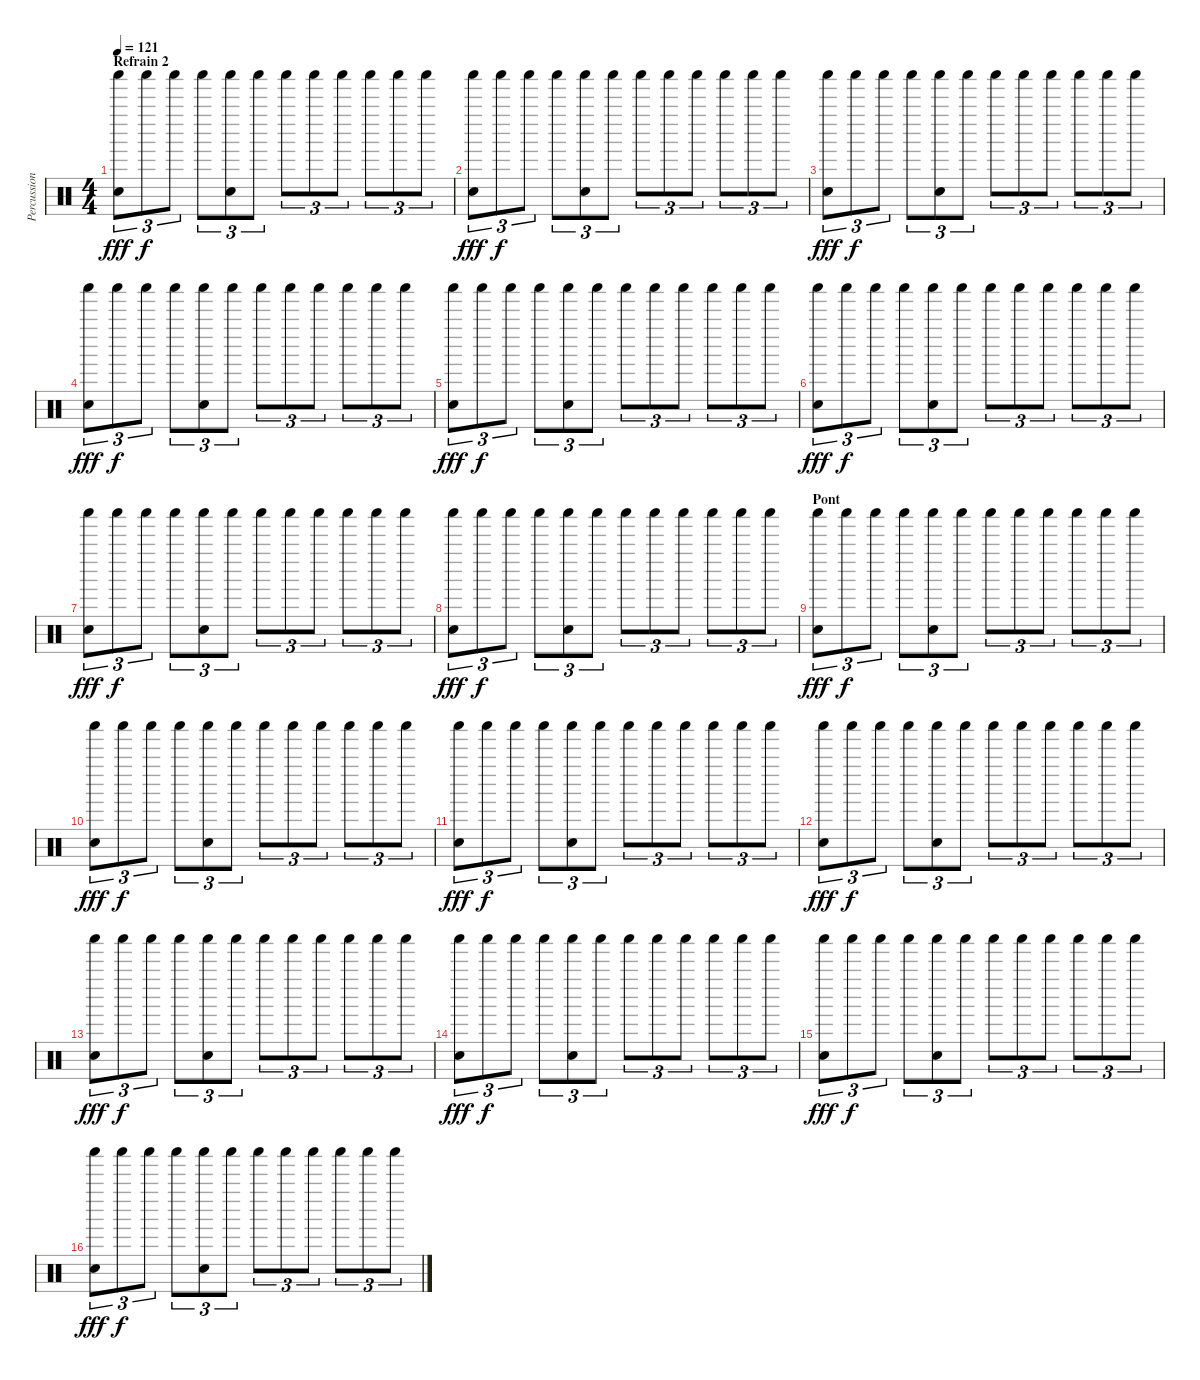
\track ("Percussions" "Percussion") {instrument percussion}
\staff {score}
\articulation defaults
\ts (4 4)
\section ("" "Refrain 2")
\tempo 121
\clef neutral
\ks c
("Shaker (hit)" "Electric Snare (hit)").8{tu (3 2) dy fff} "Shaker (hit)".8{tu (3 2) dy f} "Shaker (hit)".8{tu (3 2)} "Shaker (hit)".8{tu (3 2)} ("Shaker (hit)" "Electric Snare (hit)").8{tu (3 2)} "Shaker (hit)".8{tu (3 2)} "Shaker (hit)".8{tu (3 2)} "Shaker (hit)".8{tu (3 2)} "Shaker (hit)".8{tu (3 2)} "Shaker (hit)".8{tu (3 2)} "Shaker (hit)".8{tu (3 2)} "Shaker (hit)".8{tu (3 2)} |
("Shaker (hit)" "Electric Snare (hit)").8{tu (3 2) dy fff} "Shaker (hit)".8{tu (3 2) dy f} "Shaker (hit)".8{tu (3 2)} "Shaker (hit)".8{tu (3 2)} ("Shaker (hit)" "Electric Snare (hit)").8{tu (3 2)} "Shaker (hit)".8{tu (3 2)} "Shaker (hit)".8{tu (3 2)} "Shaker (hit)".8{tu (3 2)} "Shaker (hit)".8{tu (3 2)} "Shaker (hit)".8{tu (3 2)} "Shaker (hit)".8{tu (3 2)} "Shaker (hit)".8{tu (3 2)} |
("Shaker (hit)" "Electric Snare (hit)").8{tu (3 2) dy fff} "Shaker (hit)".8{tu (3 2) dy f} "Shaker (hit)".8{tu (3 2)} "Shaker (hit)".8{tu (3 2)} ("Shaker (hit)" "Electric Snare (hit)").8{tu (3 2)} "Shaker (hit)".8{tu (3 2)} "Shaker (hit)".8{tu (3 2)} "Shaker (hit)".8{tu (3 2)} "Shaker (hit)".8{tu (3 2)} "Shaker (hit)".8{tu (3 2)} "Shaker (hit)".8{tu (3 2)} "Shaker (hit)".8{tu (3 2)} |
("Shaker (hit)" "Electric Snare (hit)").8{tu (3 2) dy fff} "Shaker (hit)".8{tu (3 2) dy f} "Shaker (hit)".8{tu (3 2)} "Shaker (hit)".8{tu (3 2)} ("Shaker (hit)" "Electric Snare (hit)").8{tu (3 2)} "Shaker (hit)".8{tu (3 2)} "Shaker (hit)".8{tu (3 2)} "Shaker (hit)".8{tu (3 2)} "Shaker (hit)".8{tu (3 2)} "Shaker (hit)".8{tu (3 2)} "Shaker (hit)".8{tu (3 2)} "Shaker (hit)".8{tu (3 2)} |
("Shaker (hit)" "Electric Snare (hit)").8{tu (3 2) dy fff} "Shaker (hit)".8{tu (3 2) dy f} "Shaker (hit)".8{tu (3 2)} "Shaker (hit)".8{tu (3 2)} ("Shaker (hit)" "Electric Snare (hit)").8{tu (3 2)} "Shaker (hit)".8{tu (3 2)} "Shaker (hit)".8{tu (3 2)} "Shaker (hit)".8{tu (3 2)} "Shaker (hit)".8{tu (3 2)} "Shaker (hit)".8{tu (3 2)} "Shaker (hit)".8{tu (3 2)} "Shaker (hit)".8{tu (3 2)} |
("Shaker (hit)" "Electric Snare (hit)").8{tu (3 2) dy fff} "Shaker (hit)".8{tu (3 2) dy f} "Shaker (hit)".8{tu (3 2)} "Shaker (hit)".8{tu (3 2)} ("Shaker (hit)" "Electric Snare (hit)").8{tu (3 2)} "Shaker (hit)".8{tu (3 2)} "Shaker (hit)".8{tu (3 2)} "Shaker (hit)".8{tu (3 2)} "Shaker (hit)".8{tu (3 2)} "Shaker (hit)".8{tu (3 2)} "Shaker (hit)".8{tu (3 2)} "Shaker (hit)".8{tu (3 2)} |
("Shaker (hit)" "Electric Snare (hit)").8{tu (3 2) dy fff} "Shaker (hit)".8{tu (3 2) dy f} "Shaker (hit)".8{tu (3 2)} "Shaker (hit)".8{tu (3 2)} ("Shaker (hit)" "Electric Snare (hit)").8{tu (3 2)} "Shaker (hit)".8{tu (3 2)} "Shaker (hit)".8{tu (3 2)} "Shaker (hit)".8{tu (3 2)} "Shaker (hit)".8{tu (3 2)} "Shaker (hit)".8{tu (3 2)} "Shaker (hit)".8{tu (3 2)} "Shaker (hit)".8{tu (3 2)} |
("Shaker (hit)" "Electric Snare (hit)").8{tu (3 2) dy fff} "Shaker (hit)".8{tu (3 2) dy f} "Shaker (hit)".8{tu (3 2)} "Shaker (hit)".8{tu (3 2)} ("Shaker (hit)" "Electric Snare (hit)").8{tu (3 2)} "Shaker (hit)".8{tu (3 2)} "Shaker (hit)".8{tu (3 2)} "Shaker (hit)".8{tu (3 2)} "Shaker (hit)".8{tu (3 2)} "Shaker (hit)".8{tu (3 2)} "Shaker (hit)".8{tu (3 2)} "Shaker (hit)".8{tu (3 2)} |
\section ("" "Pont")
("Shaker (hit)" "Electric Snare (hit)").8{tu (3 2) dy fff} "Shaker (hit)".8{tu (3 2) dy f} "Shaker (hit)".8{tu (3 2)} "Shaker (hit)".8{tu (3 2)} ("Shaker (hit)" "Electric Snare (hit)").8{tu (3 2)} "Shaker (hit)".8{tu (3 2)} "Shaker (hit)".8{tu (3 2)} "Shaker (hit)".8{tu (3 2)} "Shaker (hit)".8{tu (3 2)} "Shaker (hit)".8{tu (3 2)} "Shaker (hit)".8{tu (3 2)} "Shaker (hit)".8{tu (3 2)} |
("Shaker (hit)" "Electric Snare (hit)").8{tu (3 2) dy fff} "Shaker (hit)".8{tu (3 2) dy f} "Shaker (hit)".8{tu (3 2)} "Shaker (hit)".8{tu (3 2)} ("Shaker (hit)" "Electric Snare (hit)").8{tu (3 2)} "Shaker (hit)".8{tu (3 2)} "Shaker (hit)".8{tu (3 2)} "Shaker (hit)".8{tu (3 2)} "Shaker (hit)".8{tu (3 2)} "Shaker (hit)".8{tu (3 2)} "Shaker (hit)".8{tu (3 2)} "Shaker (hit)".8{tu (3 2)} |
("Shaker (hit)" "Electric Snare (hit)").8{tu (3 2) dy fff} "Shaker (hit)".8{tu (3 2) dy f} "Shaker (hit)".8{tu (3 2)} "Shaker (hit)".8{tu (3 2)} ("Shaker (hit)" "Electric Snare (hit)").8{tu (3 2)} "Shaker (hit)".8{tu (3 2)} "Shaker (hit)".8{tu (3 2)} "Shaker (hit)".8{tu (3 2)} "Shaker (hit)".8{tu (3 2)} "Shaker (hit)".8{tu (3 2)} "Shaker (hit)".8{tu (3 2)} "Shaker (hit)".8{tu (3 2)} |
("Shaker (hit)" "Electric Snare (hit)").8{tu (3 2) dy fff} "Shaker (hit)".8{tu (3 2) dy f} "Shaker (hit)".8{tu (3 2)} "Shaker (hit)".8{tu (3 2)} ("Shaker (hit)" "Electric Snare (hit)").8{tu (3 2)} "Shaker (hit)".8{tu (3 2)} "Shaker (hit)".8{tu (3 2)} "Shaker (hit)".8{tu (3 2)} "Shaker (hit)".8{tu (3 2)} "Shaker (hit)".8{tu (3 2)} "Shaker (hit)".8{tu (3 2)} "Shaker (hit)".8{tu (3 2)} |
("Shaker (hit)" "Electric Snare (hit)").8{tu (3 2) dy fff} "Shaker (hit)".8{tu (3 2) dy f} "Shaker (hit)".8{tu (3 2)} "Shaker (hit)".8{tu (3 2)} ("Shaker (hit)" "Electric Snare (hit)").8{tu (3 2)} "Shaker (hit)".8{tu (3 2)} "Shaker (hit)".8{tu (3 2)} "Shaker (hit)".8{tu (3 2)} "Shaker (hit)".8{tu (3 2)} "Shaker (hit)".8{tu (3 2)} "Shaker (hit)".8{tu (3 2)} "Shaker (hit)".8{tu (3 2)} |
("Shaker (hit)" "Electric Snare (hit)").8{tu (3 2) dy fff} "Shaker (hit)".8{tu (3 2) dy f} "Shaker (hit)".8{tu (3 2)} "Shaker (hit)".8{tu (3 2)} ("Shaker (hit)" "Electric Snare (hit)").8{tu (3 2)} "Shaker (hit)".8{tu (3 2)} "Shaker (hit)".8{tu (3 2)} "Shaker (hit)".8{tu (3 2)} "Shaker (hit)".8{tu (3 2)} "Shaker (hit)".8{tu (3 2)} "Shaker (hit)".8{tu (3 2)} "Shaker (hit)".8{tu (3 2)} |
("Shaker (hit)" "Electric Snare (hit)").8{tu (3 2) dy fff} "Shaker (hit)".8{tu (3 2) dy f} "Shaker (hit)".8{tu (3 2)} "Shaker (hit)".8{tu (3 2)} ("Shaker (hit)" "Electric Snare (hit)").8{tu (3 2)} "Shaker (hit)".8{tu (3 2)} "Shaker (hit)".8{tu (3 2)} "Shaker (hit)".8{tu (3 2)} "Shaker (hit)".8{tu (3 2)} "Shaker (hit)".8{tu (3 2)} "Shaker (hit)".8{tu (3 2)} "Shaker (hit)".8{tu (3 2)} |
("Shaker (hit)" "Electric Snare (hit)").8{tu (3 2) dy fff} "Shaker (hit)".8{tu (3 2) dy f} "Shaker (hit)".8{tu (3 2)} "Shaker (hit)".8{tu (3 2)} ("Shaker (hit)" "Electric Snare (hit)").8{tu (3 2)} "Shaker (hit)".8{tu (3 2)} "Shaker (hit)".8{tu (3 2)} "Shaker (hit)".8{tu (3 2)} "Shaker (hit)".8{tu (3 2)} "Shaker (hit)".8{tu (3 2)} "Shaker (hit)".8{tu (3 2)} "Shaker (hit)".8{tu (3 2)}
